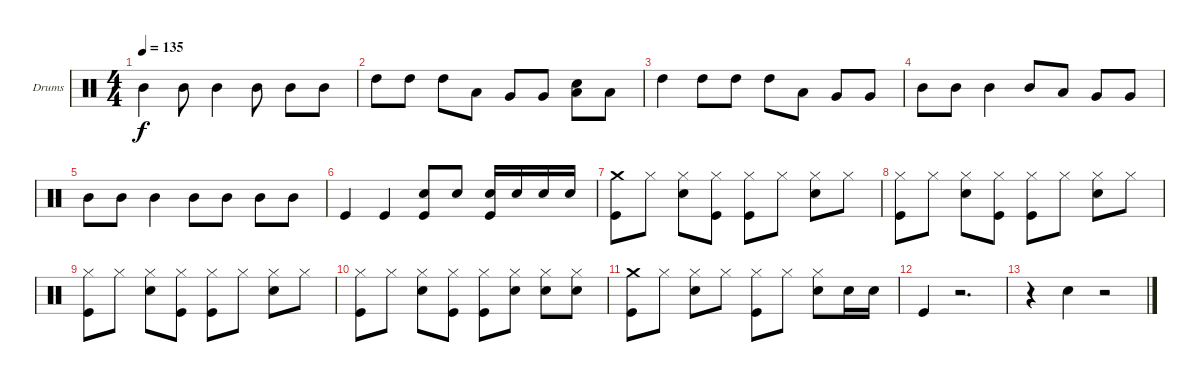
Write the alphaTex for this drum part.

\defaultSystemsLayout 4
\bracketExtendMode groupsimilarinstruments
\firstSystemTrackNameOrientation horizontal
\otherSystemsTrackNameOrientation horizontal
\track ("Барабаны" "Drums") {instrument percussion}
\staff {score}
\articulation defaults
\ts (4 4)
\tempo 135
\clef neutral
\scale
0.333333
\ks c "Mid Tom (hit)".4{dy f} "Mid Tom (hit)".8 "Mid Tom (hit)".4 "Mid Tom (hit)".8 "Mid Tom (hit)".8 "Mid Tom (hit)".8
|
\scale
0.333333 "High Tom (hit)".8 "High Tom (hit)".8 "High Tom (hit)".8 "Low Tom (hit)".8 "Very Low Tom (hit)".8 "Very Low Tom (hit)".8 ("Low Tom (hit)" "Snare (hit) 2").8 "Low Tom (hit)".8 |
\scale
0.333333 "High Tom (hit)".4 "High Tom (hit)".8 "High Tom (hit)".8 "High Tom (hit)".8 "Low Tom (hit)".8 "Very Low Tom (hit)".8 "Very Low Tom (hit)".8 |
\scale
0.333333 "Mid Tom (hit)".8 "Mid Tom (hit)".8 "Mid Tom (hit)".4 "Mid Tom (hit)".8 "Low Tom (hit)".8 "Very Low Tom (hit)".8 "Very Low Tom (hit)".8 |
\scale
0.333333 "Mid Tom (hit)".8 "Mid Tom (hit)".8 "Mid Tom (hit)".4 "Mid Tom (hit)".8 "Mid Tom (hit)".8 "Mid Tom (hit)".8 "Mid Tom (hit)".8 |
\scale
0.333333 "Kick (hit)".4 "Kick (hit)".4 ("Snare (hit) 2" "Kick (hit)").8 "Snare (hit) 2".8 ("Snare (hit) 2" "Kick (hit)").16 "Snare (hit) 2".16 "Snare (hit) 2".16 "Snare (hit) 2".16 |
\scale
0.333333 ("Crash medium (hit)" "Kick (hit)").8 "Hi-Hat (closed)".8 ("Hi-Hat (closed)" "Snare (hit) 2").8 ("Hi-Hat (closed)" "Kick (hit)").8 ("Hi-Hat (closed)" "Kick (hit)").8 "Hi-Hat (closed)".8 ("Hi-Hat (closed)" "Snare (hit) 2").8 "Hi-Hat (closed)".8 |
\scale
0.333333 ("Hi-Hat (closed)" "Kick (hit)").8 "Hi-Hat (closed)".8 ("Hi-Hat (closed)" "Snare (hit) 2").8 ("Hi-Hat (closed)" "Kick (hit)").8 ("Hi-Hat (closed)" "Kick (hit)").8 "Hi-Hat (closed)".8 ("Hi-Hat (closed)" "Snare (hit) 2").8 "Hi-Hat (closed)".8 |
\scale
0.333333 ("Hi-Hat (closed)" "Kick (hit)").8 "Hi-Hat (closed)".8 ("Hi-Hat (closed)" "Snare (hit) 2").8 ("Hi-Hat (closed)" "Kick (hit)").8 ("Hi-Hat (closed)" "Kick (hit)").8 "Hi-Hat (closed)".8 ("Hi-Hat (closed)" "Snare (hit) 2").8 "Hi-Hat (closed)".8 |
\scale
0.333333 ("Hi-Hat (closed)" "Kick (hit)").8 "Hi-Hat (closed)".8 ("Hi-Hat (closed)" "Snare (hit) 2").8 ("Hi-Hat (closed)" "Kick (hit)").8 ("Hi-Hat (closed)" "Kick (hit)").8 ("Hi-Hat (closed)" "Snare (hit) 2").8 ("Hi-Hat (closed)" "Snare (hit) 2").8 ("Hi-Hat (closed)" "Snare (hit) 2").8 |
\scale
0.333333 ("Crash medium (hit)" "Kick (hit)").8 "Hi-Hat (closed)".8 ("Hi-Hat (closed)" "Snare (hit) 2").8 "Hi-Hat (closed)".8 ("Hi-Hat (closed)" "Kick (hit)").8 "Hi-Hat (closed)".8 ("Hi-Hat (closed)" "Snare (hit) 2").8 "Snare (hit) 2".16 "Snare (hit) 2".16 |
\scale
0.333333 "Kick (hit)".4 r.2{d} |
r.4 "Snare (hit) 2".4 r.2
